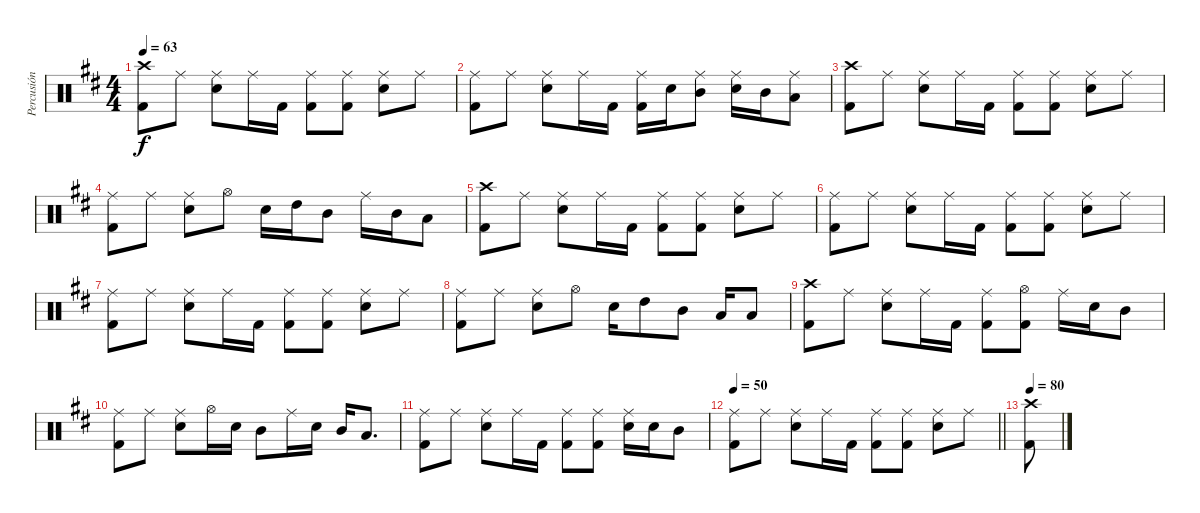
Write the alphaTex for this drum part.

\track ("Percusión" "Percusión") {instrument percussion}
\staff {score}
\articulation defaults
\ts (4 4)
\tempo 63
\clef neutral
\ks d
("Crash high (hit)" "Kick (hit) 2").8{dy f} "Ride (middle)".8 ("Ride (middle)" "Snare (hit) 2").8 "Ride (middle)".16 "Kick (hit) 2".16 ("Ride (middle)" "Kick (hit) 2").8 ("Ride (middle)" "Kick (hit) 2").8 ("Ride (middle)" "Snare (hit) 2").8 "Ride (middle)".8 |
("Ride (middle)" "Kick (hit) 2").8 "Ride (middle)".8 ("Ride (middle)" "Snare (hit) 2").8 "Ride (middle)".16 "Kick (hit) 2".16 ("Ride (middle)" "Kick (hit) 2").16 "Snare (hit) 2".16 ("Ride (middle)" "Mid Tom (hit)").8 ("Ride (middle)" "Snare (hit) 2").16 "Mid Tom (hit)".16 ("Ride (middle)" "Low Tom (hit)").8 |
("Crash high (hit)" "Kick (hit) 2").8 "Ride (middle)".8 ("Ride (middle)" "Snare (hit) 2").8 "Ride (middle)".16 "Kick (hit) 2".16 ("Ride (middle)" "Kick (hit) 2").8 ("Ride (middle)" "Kick (hit) 2").8 ("Ride (middle)" "Snare (hit) 2").8 "Ride (middle)".8 |
("Ride (middle)" "Kick (hit) 2").8 "Ride (middle)".8 ("Ride (middle)" "Snare (hit) 2").8 "Hi-Hat (open)".8 "Snare (hit) 2".16 "High Tom (hit)".16 "Mid Tom (hit)".8 "Ride (middle)".16 "Mid Tom (hit)".16 "Low Tom (hit)".8 |
("Crash high (hit)" "Kick (hit) 2").8 "Ride (middle)".8 ("Ride (middle)" "Snare (hit) 2").8 "Ride (middle)".16 "Kick (hit) 2".16 ("Ride (middle)" "Kick (hit) 2").8 ("Ride (middle)" "Kick (hit) 2").8 ("Ride (middle)" "Snare (hit) 2").8 "Ride (middle)".8 |
("Ride (middle)" "Kick (hit) 2").8 "Ride (middle)".8 ("Ride (middle)" "Snare (hit) 2").8 "Ride (middle)".16 "Kick (hit) 2".16 ("Ride (middle)" "Kick (hit) 2").8 ("Ride (middle)" "Kick (hit) 2").8 ("Ride (middle)" "Snare (hit) 2").8 "Ride (middle)".8 |
("Ride (middle)" "Kick (hit) 2").8 "Ride (middle)".8 ("Ride (middle)" "Snare (hit) 2").8 "Ride (middle)".16 "Kick (hit) 2".16 ("Ride (middle)" "Kick (hit) 2").8 ("Ride (middle)" "Kick (hit) 2").8 ("Ride (middle)" "Snare (hit) 2").8 "Ride (middle)".8 |
("Ride (middle)" "Kick (hit) 2").8 "Ride (middle)".8 ("Ride (middle)" "Snare (hit) 2").8 "Hi-Hat (open)".8 "Snare (hit) 2".16 "High Tom (hit)".8 "Mid Tom (hit)".8 "Low Tom (hit)".16 "Low Tom (hit)".8 |
("Crash high (hit)" "Kick (hit) 2").8{volume 9} "Ride (middle)".8 ("Ride (middle)" "Snare (hit) 2").8 "Ride (middle)".16 "Kick (hit) 2".16 ("Ride (middle)" "Kick (hit) 2").8 ("Hi-Hat (open)" "Kick (hit) 2").8 "Ride (middle)".16 "Snare (hit) 2".16 "Mid Tom (hit)".8 |
("Ride (middle)" "Kick (hit) 2").8 "Ride (middle)".8 ("Ride (middle)" "Snare (hit) 2").8 "Hi-Hat (open)".16 "Snare (hit) 2".16 "Mid Tom (hit)".8 "Ride (middle)".16 "Snare (hit) 2".16 "Mid Tom (hit)".16 "Low Tom (hit)".8{d} |
("Ride (middle)" "Kick (hit) 2").8 "Ride (middle)".8 ("Ride (middle)" "Snare (hit) 2").8 "Ride (middle)".16 "Kick (hit) 2".16 ("Ride (middle)" "Kick (hit) 2").8 ("Ride (middle)" "Kick (hit) 2").8 ("Ride (middle)" "Snare (hit) 2").16 "Snare (hit) 2".16 "Mid Tom (hit)".8 |
\tempo 50
\barLineRight lightlight
("Ride (middle)" "Kick (hit) 2").8 "Ride (middle)".8 ("Ride (middle)" "Snare (hit) 2").8 "Ride (middle)".16 "Kick (hit) 2".16 ("Ride (middle)" "Kick (hit) 2").8 ("Ride (middle)" "Kick (hit) 2").8 ("Ride (middle)" "Snare (hit) 2").8 "Ride (middle)".8 |
\tempo 80
("Crash high (hit)" "Kick (hit) 2").8
